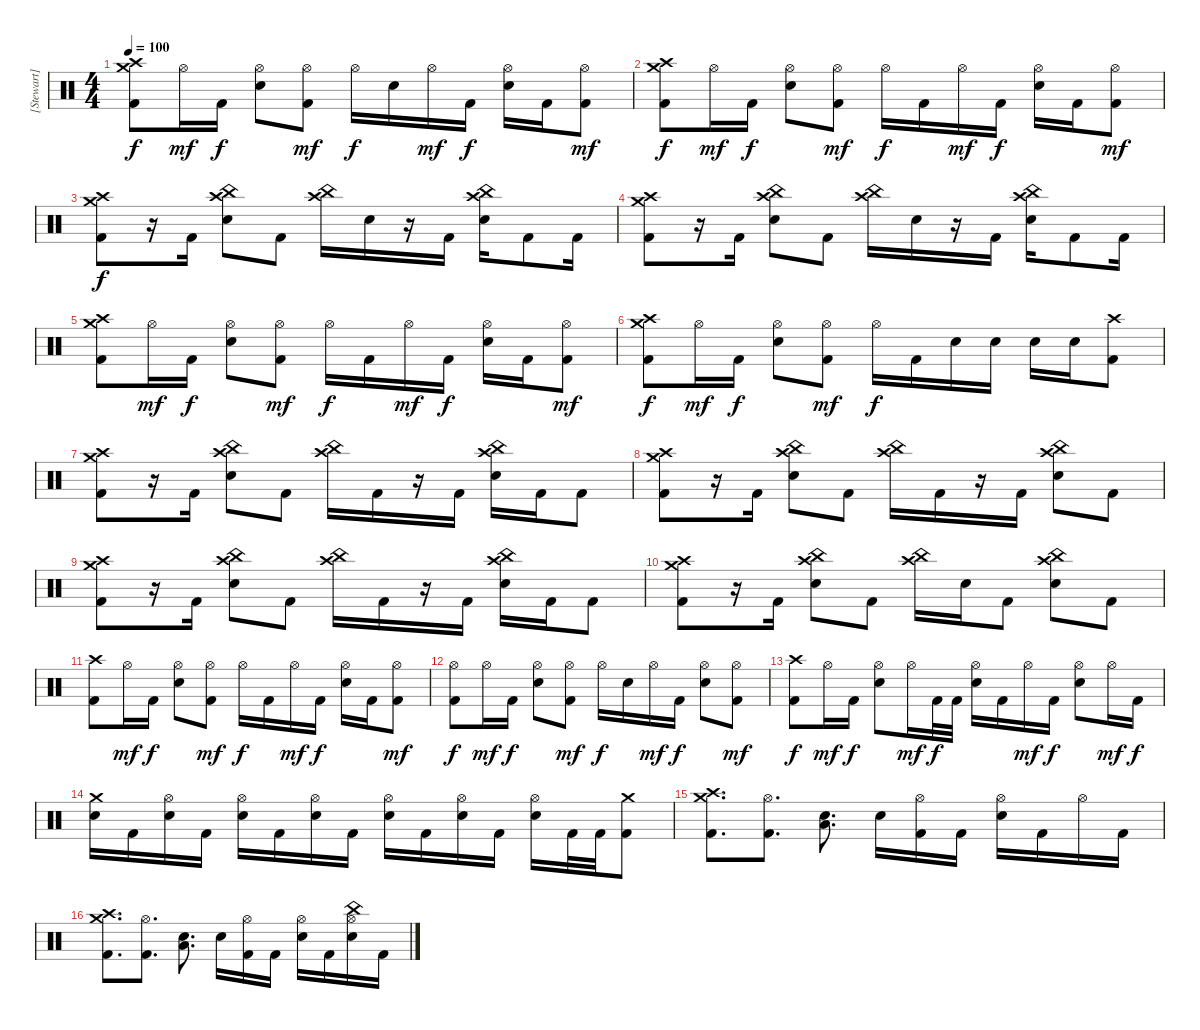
\track ("[Stewart]" "[Stewart]") {instrument percussion}
\staff {score}
\articulation defaults
\ts (4 4)
\tempo 100
\clef neutral
\ks c
("Crash high (hit)" "Crash medium (hit)" "Kick (hit) 2").8{dy f} "Hi-Hat (open)".16{dy mf} "Kick (hit) 2".16{dy f} ("Hi-Hat (open)" "Electric Snare (hit)").8 ("Hi-Hat (open)" "Kick (hit) 2").8{dy mf} "Hi-Hat (open)".16{dy f} "Electric Snare (hit)".16 "Hi-Hat (open)".16{dy mf} "Kick (hit) 2".16{dy f} ("Hi-Hat (open)" "Electric Snare (hit)").16 "Kick (hit) 2".16 ("Hi-Hat (open)" "Kick (hit) 2").8{dy mf} |
("Crash high (hit)" "Crash medium (hit)" "Kick (hit) 2").8{dy f} "Hi-Hat (open)".16{dy mf} "Kick (hit) 2".16{dy f} ("Hi-Hat (open)" "Electric Snare (hit)").8 ("Hi-Hat (open)" "Kick (hit) 2").8{dy mf} "Hi-Hat (open)".16{dy f} "Kick (hit) 2".16 "Hi-Hat (open)".16{dy mf} "Kick (hit) 2".16{dy f} ("Hi-Hat (open)" "Electric Snare (hit)").16 "Kick (hit) 2".16 ("Hi-Hat (open)" "Kick (hit) 2").8{dy mf} |
("Crash high (hit)" "Crash medium (hit)" "Kick (hit) 2").8{dy f} r.16 "Kick (hit) 2".16 ("Crash high (hit)" "China (hit)" "Electric Snare (hit)").8 "Kick (hit) 2".8 ("Crash high (hit)" "China (hit)").16 "Electric Snare (hit)".16 r.16 "Kick (hit) 2".16 ("Crash high (hit)" "China (hit)" "Electric Snare (hit)").16 "Kick (hit) 2".8 "Kick (hit) 2".16 |
("Crash high (hit)" "Crash medium (hit)" "Kick (hit) 2").8 r.16 "Kick (hit) 2".16 ("Crash high (hit)" "China (hit)" "Electric Snare (hit)").8 "Kick (hit) 2".8 ("Crash high (hit)" "China (hit)").16 "Electric Snare (hit)".16 r.16 "Kick (hit) 2".16 ("Crash high (hit)" "China (hit)" "Electric Snare (hit)").16 "Kick (hit) 2".8 "Kick (hit) 2".16 |
("Crash high (hit)" "Crash medium (hit)" "Kick (hit) 2").8 "Hi-Hat (open)".16{dy mf} "Kick (hit) 2".16{dy f} ("Hi-Hat (open)" "Electric Snare (hit)").8 ("Hi-Hat (open)" "Kick (hit) 2").8{dy mf} "Hi-Hat (open)".16{dy f} "Kick (hit) 2".16 "Hi-Hat (open)".16{dy mf} "Kick (hit) 2".16{dy f} ("Hi-Hat (open)" "Electric Snare (hit)").16 "Kick (hit) 2".16 ("Hi-Hat (open)" "Kick (hit) 2").8{dy mf} |
("Crash high (hit)" "Crash medium (hit)" "Kick (hit) 2").8{dy f} "Hi-Hat (open)".16{dy mf} "Kick (hit) 2".16{dy f} ("Hi-Hat (open)" "Electric Snare (hit)").8 ("Hi-Hat (open)" "Kick (hit) 2").8{dy mf} "Hi-Hat (open)".16{dy f} "Kick (hit) 2".16 "Electric Snare (hit)".16 "Electric Snare (hit)".16 "Electric Snare (hit)".16 "Electric Snare (hit)".16 ("Crash high (hit)" "Kick (hit) 2").8 |
("Crash high (hit)" "Crash medium (hit)" "Kick (hit) 2").8 r.16 "Kick (hit) 2".16 ("Crash high (hit)" "China (hit)" "Electric Snare (hit)").8 "Kick (hit) 2".8 ("Crash high (hit)" "China (hit)").16 "Kick (hit) 2".16 r.16 "Kick (hit) 2".16 ("Crash high (hit)" "China (hit)" "Electric Snare (hit)").16 "Kick (hit) 2".16 "Kick (hit) 2".8 |
("Crash high (hit)" "Crash medium (hit)" "Kick (hit) 2").8 r.16 "Kick (hit) 2".16 ("Crash high (hit)" "China (hit)" "Electric Snare (hit)").8 "Kick (hit) 2".8 ("Crash high (hit)" "China (hit)").16 "Kick (hit) 2".16 r.16 "Kick (hit) 2".16 ("Crash high (hit)" "China (hit)" "Electric Snare (hit)").8 "Kick (hit) 2".8 |
("Crash high (hit)" "Crash medium (hit)" "Kick (hit) 2").8 r.16 "Kick (hit) 2".16 ("Crash high (hit)" "China (hit)" "Electric Snare (hit)").8 "Kick (hit) 2".8 ("Crash high (hit)" "China (hit)").16 "Kick (hit) 2".16 r.16 "Kick (hit) 2".16 ("Crash high (hit)" "China (hit)" "Electric Snare (hit)").16 "Kick (hit) 2".16 "Kick (hit) 2".8 |
("Crash high (hit)" "Crash medium (hit)" "Kick (hit) 2").8 r.16 "Kick (hit) 2".16 ("Crash high (hit)" "China (hit)" "Electric Snare (hit)").8 "Kick (hit) 2".8 ("Crash high (hit)" "China (hit)").16 "Electric Snare (hit)".16 "Kick (hit) 2".8 ("Crash high (hit)" "China (hit)" "Electric Snare (hit)").8 "Kick (hit) 2".8 |
("Crash high (hit)" "Kick (hit) 2").8 "Hi-Hat (open)".16{dy mf} "Kick (hit) 2".16{dy f} ("Hi-Hat (open)" "Electric Snare (hit)").8 ("Hi-Hat (open)" "Kick (hit) 2").8{dy mf} "Hi-Hat (open)".16{dy f} "Kick (hit) 2".16 "Hi-Hat (open)".16{dy mf} "Kick (hit) 2".16{dy f} ("Hi-Hat (open)" "Electric Snare (hit)").16 "Kick (hit) 2".16 ("Hi-Hat (open)" "Kick (hit) 2").8{dy mf} |
("Hi-Hat (open)" "Kick (hit) 2").8{dy f} "Hi-Hat (open)".16{dy mf} "Kick (hit) 2".16{dy f} ("Hi-Hat (open)" "Electric Snare (hit)").8 ("Hi-Hat (open)" "Kick (hit) 2").8{dy mf} "Hi-Hat (open)".16{dy f} "Electric Snare (hit)".16 "Hi-Hat (open)".16{dy mf} "Kick (hit) 2".16{dy f} ("Hi-Hat (open)" "Electric Snare (hit)").8 ("Hi-Hat (open)" "Kick (hit) 2").8{dy mf} |
("Crash high (hit)" "Kick (hit) 2").8{dy f} "Hi-Hat (open)".16{dy mf} "Kick (hit) 2".16{dy f} ("Hi-Hat (open)" "Electric Snare (hit)").8 "Hi-Hat (open)".16{dy mf} "Kick (hit) 2".32{dy f} "Kick (hit) 2".32 ("Hi-Hat (open)" "Electric Snare (hit)").16 "Kick (hit) 2".16 "Hi-Hat (open)".16{dy mf} "Kick (hit) 2".16{dy f} ("Hi-Hat (open)" "Electric Snare (hit)").8 "Hi-Hat (open)".16{dy mf} "Kick (hit) 2".16{dy f} |
("Crash medium (hit)" "Electric Snare (hit)").16 "Kick (hit) 2".16 ("Hi-Hat (open)" "Electric Snare (hit)").16 "Kick (hit) 2".16 ("Hi-Hat (open)" "Electric Snare (hit)").16 "Kick (hit) 2".16 ("Hi-Hat (open)" "Electric Snare (hit)").16 "Kick (hit) 2".16 ("Hi-Hat (open)" "Electric Snare (hit)").16 "Kick (hit) 2".16 ("Hi-Hat (open)" "Electric Snare (hit)").16 "Kick (hit) 2".16 ("Hi-Hat (open)" "Electric Snare (hit)").16 "Kick (hit) 2".32 "Kick (hit) 2".32 ("Crash medium (hit)" "Kick (hit) 2").8 |
("Crash high (hit)" "Crash medium (hit)" "Kick (hit) 2").8{d} ("Hi-Hat (open)" "Kick (hit) 2").8{d} ("Electric Snare (hit)" "Low Tom (hit)").8{d} "Electric Snare (hit)".16 ("Hi-Hat (open)" "Kick (hit) 2").16 "Kick (hit) 2".16 ("Hi-Hat (open)" "Electric Snare (hit)").16 "Kick (hit) 2".16 "Hi-Hat (open)".16 "Kick (hit) 2".16 |
("Crash high (hit)" "Crash medium (hit)" "Kick (hit) 2").8{d} ("Hi-Hat (open)" "Kick (hit) 2").8{d} ("Electric Snare (hit)" "Low Tom (hit)").8{d} "Electric Snare (hit)".16 ("Hi-Hat (open)" "Kick (hit) 2").16 "Kick (hit) 2".16 ("Hi-Hat (open)" "Electric Snare (hit)").16 "Kick (hit) 2".16 ("Hi-Hat (open)" "China (hit)" "Electric Snare (hit)").16 "Kick (hit) 2".16
